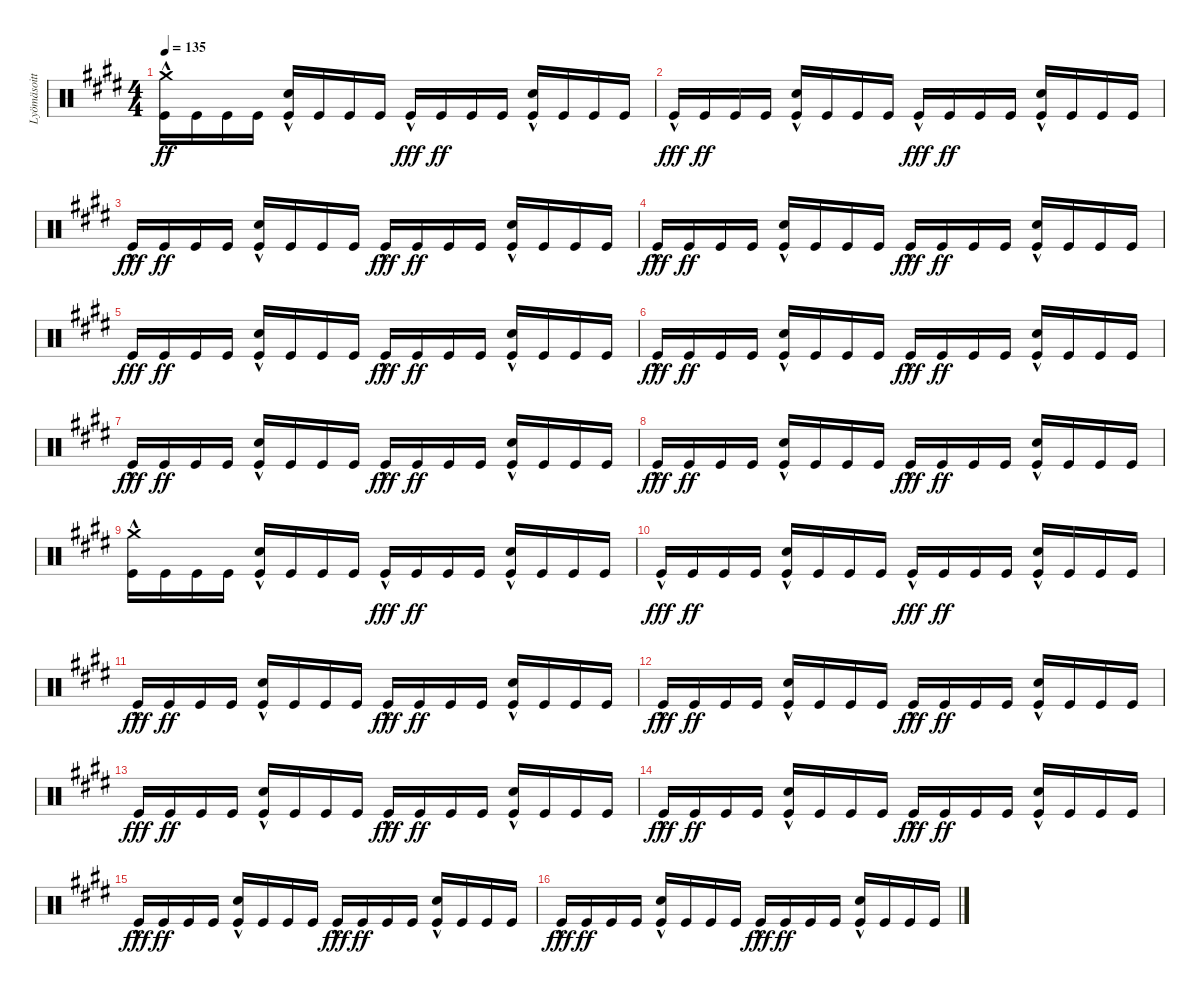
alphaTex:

\track ("Lyömäsoittimet" "Lyömäsoitt") {instrument percussion}
\staff {score}
\articulation defaults
\ts (4 4)
\tempo 135
\clef neutral
\ks e
("Kick (hit)"{hac} "Crash medium (hit)").16{dy ff} "Kick (hit)".16 "Kick (hit)".16 "Kick (hit)".16 ("Kick (hit)"{hac} "Snare (hit) 2").16 "Kick (hit)".16 "Kick (hit)".16 "Kick (hit)".16 "Kick (hit)"{hac}.16{dy fff} "Kick (hit)".16{dy ff} "Kick (hit)".16 "Kick (hit)".16 ("Kick (hit)"{hac} "Snare (hit) 2").16 "Kick (hit)".16 "Kick (hit)".16 "Kick (hit)".16 |
"Kick (hit)"{hac}.16{dy fff} "Kick (hit)".16{dy ff} "Kick (hit)".16 "Kick (hit)".16 ("Kick (hit)"{hac} "Snare (hit) 2").16 "Kick (hit)".16 "Kick (hit)".16 "Kick (hit)".16 "Kick (hit)"{hac}.16{dy fff} "Kick (hit)".16{dy ff} "Kick (hit)".16 "Kick (hit)".16 ("Kick (hit)"{hac} "Snare (hit) 2").16 "Kick (hit)".16 "Kick (hit)".16 "Kick (hit)".16 |
"Kick (hit)"{hac}.16{dy fff} "Kick (hit)".16{dy ff} "Kick (hit)".16 "Kick (hit)".16 ("Kick (hit)"{hac} "Snare (hit) 2").16 "Kick (hit)".16 "Kick (hit)".16 "Kick (hit)".16 "Kick (hit)"{hac}.16{dy fff} "Kick (hit)".16{dy ff} "Kick (hit)".16 "Kick (hit)".16 ("Kick (hit)"{hac} "Snare (hit) 2").16 "Kick (hit)".16 "Kick (hit)".16 "Kick (hit)".16 |
"Kick (hit)"{hac}.16{dy fff} "Kick (hit)".16{dy ff} "Kick (hit)".16 "Kick (hit)".16 ("Kick (hit)"{hac} "Snare (hit) 2").16 "Kick (hit)".16 "Kick (hit)".16 "Kick (hit)".16 "Kick (hit)"{hac}.16{dy fff} "Kick (hit)".16{dy ff} "Kick (hit)".16 "Kick (hit)".16 ("Kick (hit)"{hac} "Snare (hit) 2").16 "Kick (hit)".16 "Kick (hit)".16 "Kick (hit)".16 |
"Kick (hit)".16{dy fff} "Kick (hit)".16{dy ff} "Kick (hit)".16 "Kick (hit)".16 ("Kick (hit)"{hac} "Snare (hit) 2").16 "Kick (hit)".16 "Kick (hit)".16 "Kick (hit)".16 "Kick (hit)"{hac}.16{dy fff} "Kick (hit)".16{dy ff} "Kick (hit)".16 "Kick (hit)".16 ("Kick (hit)"{hac} "Snare (hit) 2").16 "Kick (hit)".16 "Kick (hit)".16 "Kick (hit)".16 |
"Kick (hit)"{hac}.16{dy fff} "Kick (hit)".16{dy ff} "Kick (hit)".16 "Kick (hit)".16 ("Kick (hit)"{hac} "Snare (hit) 2").16 "Kick (hit)".16 "Kick (hit)".16 "Kick (hit)".16 "Kick (hit)"{hac}.16{dy fff} "Kick (hit)".16{dy ff} "Kick (hit)".16 "Kick (hit)".16 ("Kick (hit)"{hac} "Snare (hit) 2").16 "Kick (hit)".16 "Kick (hit)".16 "Kick (hit)".16 |
"Kick (hit)"{hac}.16{dy fff} "Kick (hit)".16{dy ff} "Kick (hit)".16 "Kick (hit)".16 ("Kick (hit)"{hac} "Snare (hit) 2").16 "Kick (hit)".16 "Kick (hit)".16 "Kick (hit)".16 "Kick (hit)"{hac}.16{dy fff} "Kick (hit)".16{dy ff} "Kick (hit)".16 "Kick (hit)".16 ("Kick (hit)"{hac} "Snare (hit) 2").16 "Kick (hit)".16 "Kick (hit)".16 "Kick (hit)".16 |
"Kick (hit)"{hac}.16{dy fff} "Kick (hit)".16{dy ff} "Kick (hit)".16 "Kick (hit)".16 ("Kick (hit)"{hac} "Snare (hit) 2").16 "Kick (hit)".16 "Kick (hit)".16 "Kick (hit)".16 "Kick (hit)"{hac}.16{dy fff} "Kick (hit)".16{dy ff} "Kick (hit)".16 "Kick (hit)".16 ("Kick (hit)"{hac} "Snare (hit) 2").16 "Kick (hit)".16 "Kick (hit)".16 "Kick (hit)".16 |
("Kick (hit)"{hac} "Crash medium (hit)").16 "Kick (hit)".16 "Kick (hit)".16 "Kick (hit)".16 ("Kick (hit)"{hac} "Snare (hit) 2").16 "Kick (hit)".16 "Kick (hit)".16 "Kick (hit)".16 "Kick (hit)"{hac}.16{dy fff} "Kick (hit)".16{dy ff} "Kick (hit)".16 "Kick (hit)".16 ("Kick (hit)"{hac} "Snare (hit) 2").16 "Kick (hit)".16 "Kick (hit)".16 "Kick (hit)".16 |
"Kick (hit)"{hac}.16{dy fff} "Kick (hit)".16{dy ff} "Kick (hit)".16 "Kick (hit)".16 ("Kick (hit)"{hac} "Snare (hit) 2").16 "Kick (hit)".16 "Kick (hit)".16 "Kick (hit)".16 "Kick (hit)"{hac}.16{dy fff} "Kick (hit)".16{dy ff} "Kick (hit)".16 "Kick (hit)".16 ("Kick (hit)"{hac} "Snare (hit) 2").16 "Kick (hit)".16 "Kick (hit)".16 "Kick (hit)".16 |
"Kick (hit)"{hac}.16{dy fff} "Kick (hit)".16{dy ff} "Kick (hit)".16 "Kick (hit)".16 ("Kick (hit)"{hac} "Snare (hit) 2").16 "Kick (hit)".16 "Kick (hit)".16 "Kick (hit)".16 "Kick (hit)"{hac}.16{dy fff} "Kick (hit)".16{dy ff} "Kick (hit)".16 "Kick (hit)".16 ("Kick (hit)"{hac} "Snare (hit) 2").16 "Kick (hit)".16 "Kick (hit)".16 "Kick (hit)".16 |
"Kick (hit)"{hac}.16{dy fff} "Kick (hit)".16{dy ff} "Kick (hit)".16 "Kick (hit)".16 ("Kick (hit)"{hac} "Snare (hit) 2").16 "Kick (hit)".16 "Kick (hit)".16 "Kick (hit)".16 "Kick (hit)"{hac}.16{dy fff} "Kick (hit)".16{dy ff} "Kick (hit)".16 "Kick (hit)".16 ("Kick (hit)"{hac} "Snare (hit) 2").16 "Kick (hit)".16 "Kick (hit)".16 "Kick (hit)".16 |
"Kick (hit)".16{dy fff} "Kick (hit)".16{dy ff} "Kick (hit)".16 "Kick (hit)".16 ("Kick (hit)"{hac} "Snare (hit) 2").16 "Kick (hit)".16 "Kick (hit)".16 "Kick (hit)".16 "Kick (hit)"{hac}.16{dy fff} "Kick (hit)".16{dy ff} "Kick (hit)".16 "Kick (hit)".16 ("Kick (hit)"{hac} "Snare (hit) 2").16 "Kick (hit)".16 "Kick (hit)".16 "Kick (hit)".16 |
"Kick (hit)"{hac}.16{dy fff} "Kick (hit)".16{dy ff} "Kick (hit)".16 "Kick (hit)".16 ("Kick (hit)"{hac} "Snare (hit) 2").16 "Kick (hit)".16 "Kick (hit)".16 "Kick (hit)".16 "Kick (hit)"{hac}.16{dy fff} "Kick (hit)".16{dy ff} "Kick (hit)".16 "Kick (hit)".16 ("Kick (hit)"{hac} "Snare (hit) 2").16 "Kick (hit)".16 "Kick (hit)".16 "Kick (hit)".16 |
"Kick (hit)"{hac}.16{dy fff} "Kick (hit)".16{dy ff} "Kick (hit)".16 "Kick (hit)".16 ("Kick (hit)"{hac} "Snare (hit) 2").16 "Kick (hit)".16 "Kick (hit)".16 "Kick (hit)".16 "Kick (hit)"{hac}.16{dy fff} "Kick (hit)".16{dy ff} "Kick (hit)".16 "Kick (hit)".16 ("Kick (hit)"{hac} "Snare (hit) 2").16 "Kick (hit)".16 "Kick (hit)".16 "Kick (hit)".16 |
"Kick (hit)"{hac}.16{dy fff} "Kick (hit)".16{dy ff} "Kick (hit)".16 "Kick (hit)".16 ("Kick (hit)"{hac} "Snare (hit) 2").16 "Kick (hit)".16 "Kick (hit)".16 "Kick (hit)".16 "Kick (hit)"{hac}.16{dy fff} "Kick (hit)".16{dy ff} "Kick (hit)".16 "Kick (hit)".16 ("Kick (hit)"{hac} "Snare (hit) 2").16 "Kick (hit)".16 "Kick (hit)".16 "Kick (hit)".16
